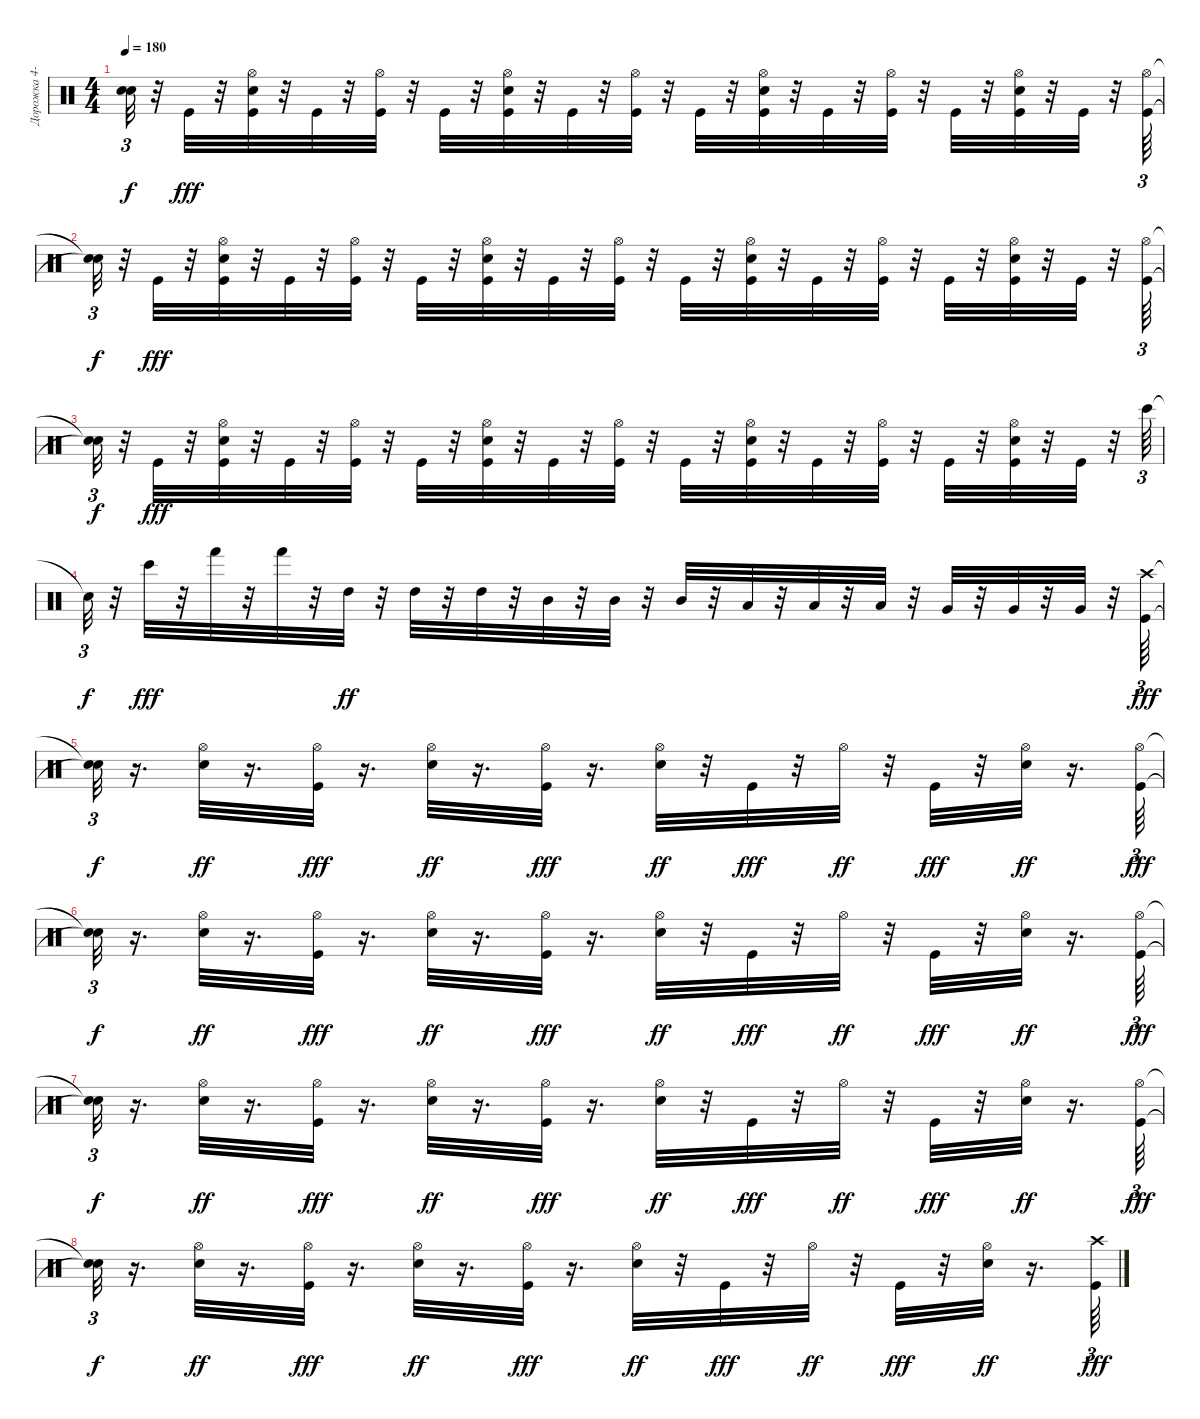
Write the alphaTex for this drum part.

\track ("Дорожка 4-10-11" "Дорожка 4-") {instrument percussion}
\staff {score}
\articulation defaults
\ts (4 4)
\tempo 180
\clef neutral
\ks c
("Snare (hit)"{t} "Snare (hit)"{t}).32{tu (3 2) dy f} r.32 "Kick (hit)".32{dy fff} r.32 ("Hi-Hat (open)" "Snare (hit) 2" "Kick (hit)").32 r.32 "Kick (hit)".32 r.32 ("Hi-Hat (open)" "Kick (hit)").32 r.32 "Kick (hit)".32 r.32 ("Hi-Hat (open)" "Snare (hit) 2" "Kick (hit)").32 r.32 "Kick (hit)".32 r.32 ("Hi-Hat (open)" "Kick (hit)").32 r.32 "Kick (hit)".32 r.32 ("Hi-Hat (open)" "Snare (hit) 2" "Kick (hit)").32 r.32 "Kick (hit)".32 r.32 ("Hi-Hat (open)" "Kick (hit)").32 r.32 "Kick (hit)".32 r.32 ("Snare (hit) 2" "Hi-Hat (open)" "Kick (hit)").32 r.32 "Kick (hit)".32 r.32 ("Hi-Hat (open)" "Kick (hit)").64{tu (3 2)} |
("Snare (hit)"{t} "Snare (hit)"{t}).32{tu (3 2) dy f} r.32 "Kick (hit)".32{dy fff} r.32 ("Hi-Hat (open)" "Snare (hit) 2" "Kick (hit)").32 r.32 "Kick (hit)".32 r.32 ("Hi-Hat (open)" "Kick (hit)").32 r.32 "Kick (hit)".32 r.32 ("Hi-Hat (open)" "Snare (hit) 2" "Kick (hit)").32 r.32 "Kick (hit)".32 r.32 ("Hi-Hat (open)" "Kick (hit)").32 r.32 "Kick (hit)".32 r.32 ("Hi-Hat (open)" "Snare (hit) 2" "Kick (hit)").32 r.32 "Kick (hit)".32 r.32 ("Hi-Hat (open)" "Kick (hit)").32 r.32 "Kick (hit)".32 r.32 ("Snare (hit) 2" "Hi-Hat (open)" "Kick (hit)").32 r.32 "Kick (hit)".32 r.32 ("Hi-Hat (open)" "Kick (hit)").64{tu (3 2)} |
("Snare (hit)"{t} "Snare (hit)"{t}).32{tu (3 2) dy f} r.32 "Kick (hit)".32{dy fff} r.32 ("Hi-Hat (open)" "Snare (hit) 2" "Kick (hit)").32 r.32 "Kick (hit)".32 r.32 ("Hi-Hat (open)" "Kick (hit)").32 r.32 "Kick (hit)".32 r.32 ("Hi-Hat (open)" "Snare (hit) 2" "Kick (hit)").32 r.32 "Kick (hit)".32 r.32 ("Hi-Hat (open)" "Kick (hit)").32 r.32 "Kick (hit)".32 r.32 ("Hi-Hat (open)" "Snare (hit) 2" "Kick (hit)").32 r.32 "Kick (hit)".32 r.32 ("Hi-Hat (open)" "Kick (hit)").32 r.32 "Kick (hit)".32 r.32 ("Snare (hit) 2" "Hi-Hat (open)" "Kick (hit)").32 r.32 "Kick (hit)".32 r.32 "Bongo High (hit)".64{tu (3 2)} |
"Snare (hit)"{t}.32{tu (3 2) dy f} r.32 "Bongo High (hit)".32{dy fff} r.32 "Hand (hit)".32 r.32 "Hand (hit)".32 r.32 "High Tom (hit)".32{dy ff} r.32 "High Tom (hit)".32 r.32 "High Tom (hit)".32 r.32 "Mid Tom (hit)".32 r.32 "Mid Tom (hit)".32 r.32 "Mid Tom (hit)".32 r.32 "Low Tom (hit)".32 r.32 "Low Tom (hit)".32 r.32 "Low Tom (hit)".32 r.32 "Very Low Tom (hit)".32 r.32 "Very Low Tom (hit)".32 r.32 "Very Low Tom (hit)".32 r.32 ("Crash high (hit)" "Kick (hit)").64{tu (3 2) dy fff} |
("Snare (hit)"{t} "Snare (hit)"{t}).32{tu (3 2) dy f} r.16{d} ("Hi-Hat (open)" "Snare (hit) 2").32{dy ff} r.16{d} ("Hi-Hat (open)" "Kick (hit)").32{dy fff} r.16{d} ("Hi-Hat (open)" "Snare (hit) 2").32{dy ff} r.16{d} ("Hi-Hat (open)" "Kick (hit)").32{dy fff} r.16{d} ("Hi-Hat (open)" "Snare (hit) 2").32{dy ff} r.32 "Kick (hit)".32{dy fff} r.32 "Hi-Hat (open)".32{dy ff} r.32 "Kick (hit)".32{dy fff} r.32 ("Snare (hit) 2" "Hi-Hat (open)").32{dy ff} r.16{d} ("Hi-Hat (open)" "Kick (hit)").64{tu (3 2) dy fff} |
("Snare (hit)"{t} "Snare (hit)"{t}).32{tu (3 2) dy f} r.16{d} ("Hi-Hat (open)" "Snare (hit) 2").32{dy ff} r.16{d} ("Hi-Hat (open)" "Kick (hit)").32{dy fff} r.16{d} ("Hi-Hat (open)" "Snare (hit) 2").32{dy ff} r.16{d} ("Hi-Hat (open)" "Kick (hit)").32{dy fff} r.16{d} ("Hi-Hat (open)" "Snare (hit) 2").32{dy ff} r.32 "Kick (hit)".32{dy fff} r.32 "Hi-Hat (open)".32{dy ff} r.32 "Kick (hit)".32{dy fff} r.32 ("Snare (hit) 2" "Hi-Hat (open)").32{dy ff} r.16{d} ("Hi-Hat (open)" "Kick (hit)").64{tu (3 2) dy fff} |
("Snare (hit)"{t} "Snare (hit)"{t}).32{tu (3 2) dy f} r.16{d} ("Hi-Hat (open)" "Snare (hit) 2").32{dy ff} r.16{d} ("Hi-Hat (open)" "Kick (hit)").32{dy fff} r.16{d} ("Hi-Hat (open)" "Snare (hit) 2").32{dy ff} r.16{d} ("Hi-Hat (open)" "Kick (hit)").32{dy fff} r.16{d} ("Hi-Hat (open)" "Snare (hit) 2").32{dy ff} r.32 "Kick (hit)".32{dy fff} r.32 "Hi-Hat (open)".32{dy ff} r.32 "Kick (hit)".32{dy fff} r.32 ("Snare (hit) 2" "Hi-Hat (open)").32{dy ff} r.16{d} ("Hi-Hat (open)" "Kick (hit)").64{tu (3 2) dy fff} |
("Snare (hit)"{t} "Snare (hit)"{t}).32{tu (3 2) dy f} r.16{d} ("Hi-Hat (open)" "Snare (hit) 2").32{dy ff} r.16{d} ("Hi-Hat (open)" "Kick (hit)").32{dy fff} r.16{d} ("Hi-Hat (open)" "Snare (hit) 2").32{dy ff} r.16{d} ("Hi-Hat (open)" "Kick (hit)").32{dy fff} r.16{d} ("Hi-Hat (open)" "Snare (hit) 2").32{dy ff} r.32 "Kick (hit)".32{dy fff} r.32 "Hi-Hat (open)".32{dy ff} r.32 "Kick (hit)".32{dy fff} r.32 ("Snare (hit) 2" "Hi-Hat (open)").32{dy ff} r.16{d} ("Crash high (hit)" "Kick (hit)").64{tu (3 2) dy fff}
